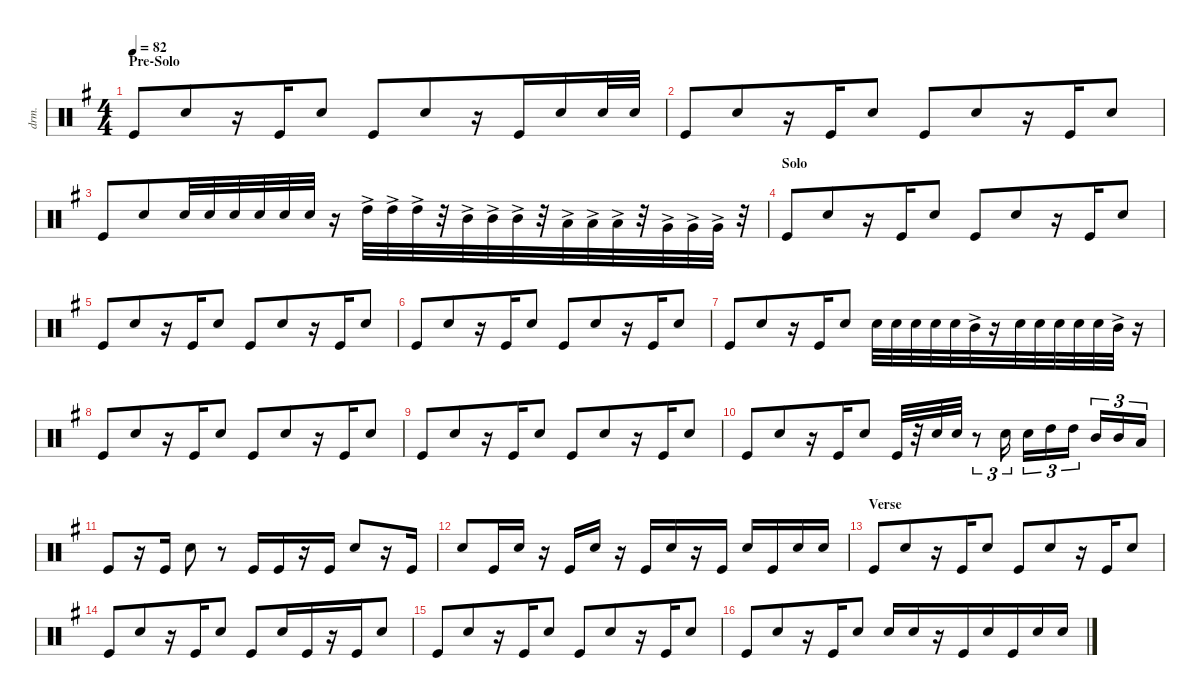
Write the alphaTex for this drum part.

\defaultSystemsLayout 2
\hideDynamics
\bracketExtendMode nobrackets
\otherSystemsTrackNameOrientation horizontal
\track ("Drums" "drm.") {instrument percussion}
\staff {score}
\articulation defaults
\ts (4 4)
\beaming (8 4 4)
\section ("" "Pre-Solo")
\tempo 82
\clef neutral
\ks g "Kick (hit)".8{dy f} "Snare (hit) 2".8
r.16 "Kick (hit)".16 "Snare (hit) 2".8 "Kick (hit)".8 "Snare (hit) 2".8 r.16 "Kick (hit)".16 "Snare (hit) 2".16 "Snare (hit) 2".32 "Snare (hit) 2".32 |
"Kick (hit)".8 "Snare (hit) 2".8 r.16 "Kick (hit)".16 "Snare (hit) 2".8 "Kick (hit)".8 "Snare (hit) 2".8 r.16 "Kick (hit)".16 "Snare (hit) 2".8 |
"Kick (hit)".8 "Snare (hit) 2".8 "Snare (hit) 2".32 "Snare (hit) 2".32 "Snare (hit) 2".32 "Snare (hit) 2".32 "Snare (hit) 2".32 "Snare (hit) 2".32 r.16 "High Tom (hit)"{ac}.32 "High Tom (hit)"{ac}.32 "High Tom (hit)"{ac}.32 r.32 "Mid Tom (hit)"{ac}.32 "Mid Tom (hit)"{ac}.32 "Mid Tom (hit)"{ac}.32 r.32 "Low Tom (hit)"{ac}.32 "Low Tom (hit)"{ac}.32 "Low Tom (hit)"{ac}.32 r.32 "Very Low Tom (hit)"{ac}.32 "Very Low Tom (hit)"{ac}.32 "Very Low Tom (hit)"{ac}.32 r.32 |
\section ("" "Solo")
"Kick (hit)".8 "Snare (hit) 2".8 r.16 "Kick (hit)".16 "Snare (hit) 2".8 "Kick (hit)".8 "Snare (hit) 2".8 r.16 "Kick (hit)".16 "Snare (hit) 2".8 |
"Kick (hit)".8 "Snare (hit) 2".8 r.16 "Kick (hit)".16 "Snare (hit) 2".8 "Kick (hit)".8 "Snare (hit) 2".8 r.16 "Kick (hit)".16 "Snare (hit) 2".8 |
"Kick (hit)".8 "Snare (hit) 2".8 r.16 "Kick (hit)".16 "Snare (hit) 2".8 "Kick (hit)".8 "Snare (hit) 2".8 r.16 "Kick (hit)".16 "Snare (hit) 2".8 |
"Kick (hit)".8 "Snare (hit) 2".8 r.16 "Kick (hit)".16 "Snare (hit) 2".8 "Snare (hit) 2".32 "Snare (hit) 2".32 "Snare (hit) 2".32 "Snare (hit) 2".32 "Snare (hit) 2".32{dy mf} "Mid Tom (hit)"{ac}.32{dy f} r.16 "Snare (hit) 2".32 "Snare (hit) 2".32 "Snare (hit) 2".32 "Snare (hit) 2".32 "Snare (hit) 2".32{dy mf} "Mid Tom (hit)"{ac}.32{dy f} r.16 |
"Kick (hit)".8 "Snare (hit) 2".8 r.16 "Kick (hit)".16 "Snare (hit) 2".8 "Kick (hit)".8 "Snare (hit) 2".8 r.16 "Kick (hit)".16 "Snare (hit) 2".8 |
"Kick (hit)".8 "Snare (hit) 2".8 r.16 "Kick (hit)".16 "Snare (hit) 2".8 "Kick (hit)".8 "Snare (hit) 2".8 r.16 "Kick (hit)".16 "Snare (hit) 2".8 |
"Kick (hit)".8 "Snare (hit) 2".8 r.16 "Kick (hit)".16 "Snare (hit) 2".8 "Kick (hit)".32 r.32 "Snare (hit) 2".32 "Snare (hit) 2".32 r.8{tu (3 2)} "Snare (hit) 2".16{tu (3 2)} "Snare (hit) 2".16{tu (3 2)} "High Tom (hit)".16{tu (3 2)} "High Tom (hit)".16{tu (3 2)} "Mid Tom (hit)".16{tu (3 2)} "Mid Tom (hit)".16{tu (3 2)} "Low Tom (hit)".16{tu (3 2)} |
\beaming (8 2 2 2 2)
"Kick (hit)".8 r.16 "Kick (hit)".16 "Snare (hit) 2".8 r.8 "Kick (hit)".16 "Kick (hit)".16 r.16 "Kick (hit)".16 "Snare (hit) 2".8 r.16 "Kick (hit)".16 |
"Snare (hit) 2".8 "Kick (hit)".16 "Snare (hit) 2".16 r.16 "Kick (hit)".16 "Snare (hit) 2".16 r.16 "Kick (hit)".16 "Snare (hit) 2".16 r.16 "Kick (hit)".16 "Snare (hit) 2".16 "Kick (hit)".16 "Snare (hit) 2".16 "Snare (hit) 2".16 |
\beaming (8 4 4)
\section ("" "Verse")
"Kick (hit)".8 "Snare (hit) 2".8 r.16 "Kick (hit)".16 "Snare (hit) 2".8 "Kick (hit)".8 "Snare (hit) 2".8 r.16 "Kick (hit)".16 "Snare (hit) 2".8 |
"Kick (hit)".8 "Snare (hit) 2".8 r.16 "Kick (hit)".16 "Snare (hit) 2".8 "Kick (hit)".8 "Snare (hit) 2".16 "Kick (hit)".16 r.16 "Kick (hit)".16 "Snare (hit) 2".8 |
"Kick (hit)".8 "Snare (hit) 2".8 r.16 "Kick (hit)".16 "Snare (hit) 2".8 "Kick (hit)".8 "Snare (hit) 2".8 r.16 "Kick (hit)".16 "Snare (hit) 2".8 |
"Kick (hit)".8 "Snare (hit) 2".8 r.16 "Kick (hit)".16 "Snare (hit) 2".8 "Snare (hit) 2".16{dy ff} "Snare (hit) 2".16{dy f} r.16 "Kick (hit)".16 "Snare (hit) 2".16 "Kick (hit)".16 "Snare (hit) 2".16 "Snare (hit) 2".16
